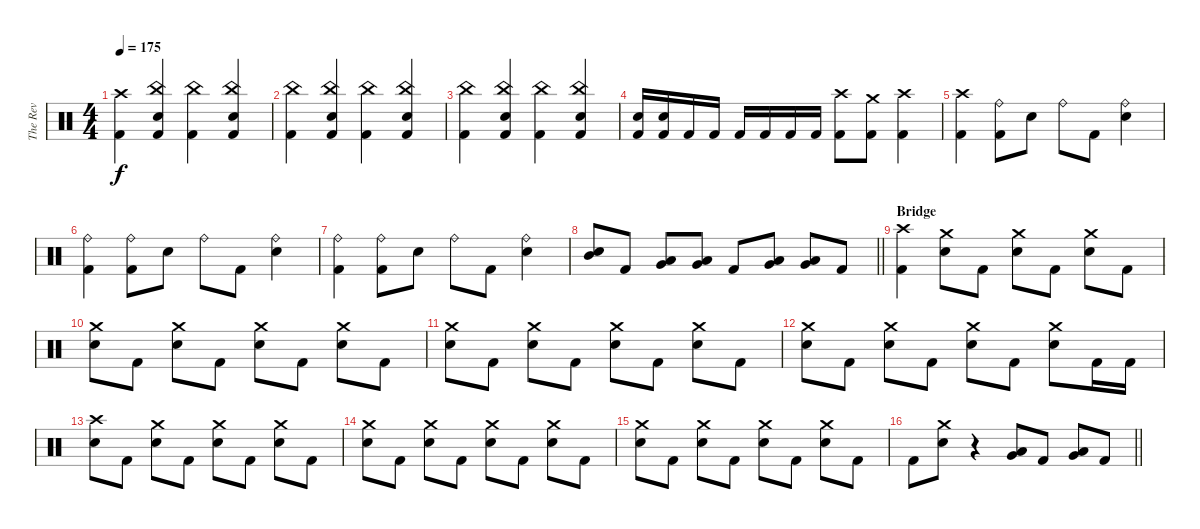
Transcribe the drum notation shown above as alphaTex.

\track ("The Rev" "The Rev") {instrument percussion}
\staff {score}
\articulation defaults
\ts (4 4)
\tempo 175
\clef neutral
\ks c
("Crash high (hit)" "Kick (hit) 2").4{dy f} ("China (hit)" "Snare (hit) 2" "Kick (hit) 2").4 ("China (hit)" "Kick (hit) 2").4 ("China (hit)" "Snare (hit) 2" "Kick (hit) 2").4 |
("China (hit)" "Kick (hit) 2").4 ("China (hit)" "Snare (hit) 2" "Kick (hit) 2").4 ("China (hit)" "Kick (hit) 2").4 ("China (hit)" "Snare (hit) 2" "Kick (hit) 2").4 |
("China (hit)" "Kick (hit) 2").4 ("China (hit)" "Snare (hit) 2" "Kick (hit) 2").4 ("China (hit)" "Kick (hit) 2").4 ("China (hit)" "Snare (hit) 2" "Kick (hit) 2").4 |
("Snare (hit) 2" "Kick (hit) 2").16 ("Snare (hit) 2" "Kick (hit) 2").16 "Kick (hit) 2".16 "Kick (hit) 2".16 "Kick (hit) 2".16 "Kick (hit) 2".16 "Kick (hit) 2".16 "Kick (hit) 2".16 ("Crash high (hit)" "Kick (hit) 2").8 ("Crash medium (hit)" "Kick (hit) 2").8 ("Crash high (hit)" "Kick (hit) 2").4 |
("Crash high (hit)" "Kick (hit) 2").4 ("Ride (bell)" "Kick (hit) 2").8 "Snare (hit) 2".8 "Ride (bell)".8 "Kick (hit) 2".8 ("Ride (bell)" "Snare (hit) 2").4 |
("Ride (bell)" "Kick (hit) 2").4 ("Ride (bell)" "Kick (hit) 2").8 "Snare (hit) 2".8 "Ride (bell)".8 "Kick (hit) 2".8 ("Ride (bell)" "Snare (hit) 2").4 |
("Ride (bell)" "Kick (hit) 2").4 ("Ride (bell)" "Kick (hit) 2").8 "Snare (hit) 2".8 "Ride (bell)".8 "Kick (hit) 2".8 ("Ride (bell)" "Snare (hit) 2").4 |
\barLineRight lightlight
("Mid Tom (hit)" "Snare (hit) 2").8 "Kick (hit) 2".8 ("Low Tom (hit)" "Very Low Tom (hit)").8 ("Low Tom (hit)" "Very Low Tom (hit)").8 "Kick (hit) 2".8 ("Very Low Tom (hit)" "Low Floor Tom (hit)").8 ("Very Low Tom (hit)" "Low Floor Tom (hit)").8 "Kick (hit) 2".8 |
\section ("" "Bridge")
("Crash high (hit)" "Kick (hit) 2").4 ("Crash medium (hit)" "Snare (hit) 2").8 "Kick (hit) 2".8 ("Crash medium (hit)" "Snare (hit) 2").8 "Kick (hit) 2".8 ("Crash medium (hit)" "Snare (hit) 2").8 "Kick (hit) 2".8 |
("Crash medium (hit)" "Snare (hit) 2").8 "Kick (hit) 2".8 ("Crash medium (hit)" "Snare (hit) 2").8 "Kick (hit) 2".8 ("Crash medium (hit)" "Snare (hit) 2").8 "Kick (hit) 2".8 ("Crash medium (hit)" "Snare (hit) 2").8 "Kick (hit) 2".8 |
("Crash medium (hit)" "Snare (hit) 2").8 "Kick (hit) 2".8 ("Crash medium (hit)" "Snare (hit) 2").8 "Kick (hit) 2".8 ("Crash medium (hit)" "Snare (hit) 2").8 "Kick (hit) 2".8 ("Crash medium (hit)" "Snare (hit) 2").8 "Kick (hit) 2".8 |
("Crash medium (hit)" "Snare (hit) 2").8 "Kick (hit) 2".8 ("Crash medium (hit)" "Snare (hit) 2").8 "Kick (hit) 2".8 ("Crash medium (hit)" "Snare (hit) 2").8 "Kick (hit) 2".8 ("Crash medium (hit)" "Snare (hit) 2").8 "Kick (hit) 2".16 "Kick (hit) 2".16 |
("Crash high (hit)" "Snare (hit) 2").8 "Kick (hit) 2".8 ("Crash medium (hit)" "Snare (hit) 2").8 "Kick (hit) 2".8 ("Crash medium (hit)" "Snare (hit) 2").8 "Kick (hit) 2".8 ("Crash medium (hit)" "Snare (hit) 2").8 "Kick (hit) 2".8 |
("Crash medium (hit)" "Snare (hit) 2").8 "Kick (hit) 2".8 ("Crash medium (hit)" "Snare (hit) 2").8 "Kick (hit) 2".8 ("Crash medium (hit)" "Snare (hit) 2").8 "Kick (hit) 2".8 ("Crash medium (hit)" "Snare (hit) 2").8 "Kick (hit) 2".8 |
("Crash medium (hit)" "Snare (hit) 2").8 "Kick (hit) 2".8 ("Crash medium (hit)" "Snare (hit) 2").8 "Kick (hit) 2".8 ("Crash medium (hit)" "Snare (hit) 2").8 "Kick (hit) 2".8 ("Crash medium (hit)" "Snare (hit) 2").8 "Kick (hit) 2".8 |
\barLineRight lightlight "Kick (hit) 2".8
("Crash medium (hit)" "Snare (hit) 2").8 r.4 ("Low Tom (hit)" "Very Low Tom (hit)").8 "Kick (hit) 2".8 ("Very Low Tom (hit)" "Low Floor Tom (hit)").8 "Kick (hit) 2".8
